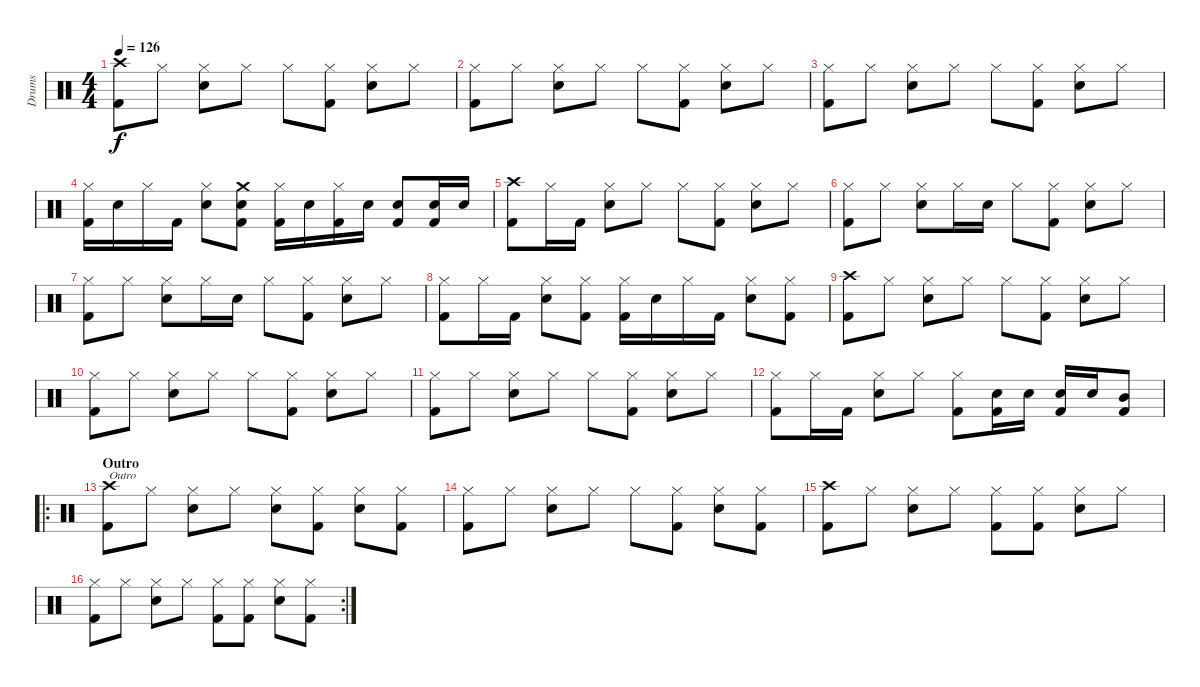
\track ("Drums" "Drums") {instrument percussion}
\staff {score}
\articulation defaults
\ts (4 4)
\tempo 126
\clef neutral
\ks c
("Crash high (hit)" "Kick (hit) 2").8{dy f} "Hi-Hat (closed)".8 ("Hi-Hat (closed)" "Electric Snare (hit)").8 "Hi-Hat (closed)".8 "Hi-Hat (closed)".8 ("Hi-Hat (closed)" "Kick (hit) 2").8 ("Hi-Hat (closed)" "Electric Snare (hit)").8 "Hi-Hat (closed)".8 |
("Hi-Hat (closed)" "Kick (hit) 2").8 "Hi-Hat (closed)".8 ("Hi-Hat (closed)" "Electric Snare (hit)").8 "Hi-Hat (closed)".8 "Hi-Hat (closed)".8 ("Hi-Hat (closed)" "Kick (hit) 2").8 ("Hi-Hat (closed)" "Electric Snare (hit)").8 "Hi-Hat (closed)".8 |
("Hi-Hat (closed)" "Kick (hit) 2").8 "Hi-Hat (closed)".8 ("Hi-Hat (closed)" "Electric Snare (hit)").8 "Hi-Hat (closed)".8 "Hi-Hat (closed)".8 ("Hi-Hat (closed)" "Kick (hit) 2").8 ("Hi-Hat (closed)" "Electric Snare (hit)").8 "Hi-Hat (closed)".8 |
("Hi-Hat (closed)" "Kick (hit) 2").16 "Electric Snare (hit)".16 "Hi-Hat (closed)".16 "Kick (hit) 2".16 ("Hi-Hat (closed)" "Electric Snare (hit)").8 ("Crash medium (hit)" "Electric Snare (hit)" "Kick (hit) 2").8 ("Hi-Hat (closed)" "Kick (hit) 2").16 "Electric Snare (hit)".16 ("Hi-Hat (closed)" "Kick (hit) 2").16 "Electric Snare (hit)".16 ("Electric Snare (hit)" "Kick (hit) 2").8 ("Electric Snare (hit)" "Kick (hit) 2").16 "Electric Snare (hit)".16 |
("Crash high (hit)" "Kick (hit) 2").8 "Hi-Hat (closed)".16 "Kick (hit) 2".16 ("Hi-Hat (closed)" "Electric Snare (hit)").8 "Hi-Hat (closed)".8 "Hi-Hat (closed)".8 ("Hi-Hat (closed)" "Kick (hit) 2").8 ("Hi-Hat (closed)" "Electric Snare (hit)").8 "Hi-Hat (closed)".8 |
("Hi-Hat (closed)" "Kick (hit) 2").8 "Hi-Hat (closed)".8 ("Hi-Hat (closed)" "Electric Snare (hit)").8 "Hi-Hat (closed)".16 "Electric Snare (hit)".16 "Hi-Hat (closed)".8 ("Hi-Hat (closed)" "Kick (hit) 2").8 ("Hi-Hat (closed)" "Electric Snare (hit)").8 "Hi-Hat (closed)".8 |
("Hi-Hat (closed)" "Kick (hit) 2").8 "Hi-Hat (closed)".8 ("Hi-Hat (closed)" "Electric Snare (hit)").8 "Hi-Hat (closed)".16 "Electric Snare (hit)".16 "Hi-Hat (closed)".8 ("Hi-Hat (closed)" "Kick (hit) 2").8 ("Hi-Hat (closed)" "Electric Snare (hit)").8 "Hi-Hat (closed)".8 |
("Hi-Hat (closed)" "Kick (hit) 2").8 "Hi-Hat (closed)".16 "Kick (hit) 2".16 ("Hi-Hat (closed)" "Electric Snare (hit)").8 ("Hi-Hat (closed)" "Kick (hit) 2").8 ("Hi-Hat (closed)" "Kick (hit) 2").16 "Electric Snare (hit)".16 "Hi-Hat (closed)".16 "Kick (hit) 2".16 ("Hi-Hat (closed)" "Electric Snare (hit)").8 ("Hi-Hat (closed)" "Kick (hit) 2").8 |
("Crash high (hit)" "Kick (hit) 2").8 "Hi-Hat (closed)".8 ("Hi-Hat (closed)" "Electric Snare (hit)").8 "Hi-Hat (closed)".8 "Hi-Hat (closed)".8 ("Hi-Hat (closed)" "Kick (hit) 2").8 ("Hi-Hat (closed)" "Electric Snare (hit)").8 "Hi-Hat (closed)".8 |
("Hi-Hat (closed)" "Kick (hit) 2").8 "Hi-Hat (closed)".8 ("Hi-Hat (closed)" "Electric Snare (hit)").8 "Hi-Hat (closed)".8 "Hi-Hat (closed)".8 ("Hi-Hat (closed)" "Kick (hit) 2").8 ("Hi-Hat (closed)" "Electric Snare (hit)").8 "Hi-Hat (closed)".8 |
("Hi-Hat (closed)" "Kick (hit) 2").8 "Hi-Hat (closed)".8 ("Hi-Hat (closed)" "Electric Snare (hit)").8 "Hi-Hat (closed)".8 "Hi-Hat (closed)".8 ("Hi-Hat (closed)" "Kick (hit) 2").8 ("Hi-Hat (closed)" "Electric Snare (hit)").8 "Hi-Hat (closed)".8 |
("Hi-Hat (closed)" "Kick (hit) 2").8 "Hi-Hat (closed)".16 "Kick (hit) 2".16 ("Hi-Hat (closed)" "Electric Snare (hit)").8 "Hi-Hat (closed)".8 ("Hi-Hat (closed)" "Kick (hit) 2").8 ("Electric Snare (hit)" "Kick (hit) 2").16 "Electric Snare (hit)".16 ("Electric Snare (hit)" "Kick (hit) 2").16 "Electric Snare (hit)".16 ("Mid Tom (hit)" "Kick (hit) 2").8 |
\ro
\section ("" "Outro")
("Crash high (hit)" "Kick (hit) 2").8{txt "Outro"} "Hi-Hat (closed)".8 ("Hi-Hat (closed)" "Electric Snare (hit)").8 "Hi-Hat (closed)".8 ("Hi-Hat (closed)" "Electric Snare (hit)").8 ("Hi-Hat (closed)" "Kick (hit) 2").8 ("Hi-Hat (closed)" "Electric Snare (hit)").8 ("Hi-Hat (closed)" "Kick (hit) 2").8 |
("Hi-Hat (closed)" "Kick (hit) 2").8 "Hi-Hat (closed)".8 ("Hi-Hat (closed)" "Electric Snare (hit)").8 "Hi-Hat (closed)".8 "Hi-Hat (closed)".8 ("Hi-Hat (closed)" "Kick (hit) 2").8 ("Hi-Hat (closed)" "Electric Snare (hit)").8 ("Hi-Hat (closed)" "Kick (hit) 2").8 |
("Crash high (hit)" "Kick (hit) 2").8 "Hi-Hat (closed)".8 ("Hi-Hat (closed)" "Electric Snare (hit)").8 "Hi-Hat (closed)".8 ("Hi-Hat (closed)" "Kick (hit) 2").8 ("Hi-Hat (closed)" "Kick (hit) 2").8 ("Hi-Hat (closed)" "Electric Snare (hit)").8 "Hi-Hat (closed)".8 |
\rc 2
("Hi-Hat (closed)" "Kick (hit) 2").8 "Hi-Hat (closed)".8 ("Hi-Hat (closed)" "Electric Snare (hit)").8 "Hi-Hat (closed)".8 ("Hi-Hat (closed)" "Kick (hit) 2").8 ("Hi-Hat (closed)" "Kick (hit) 2").8 ("Hi-Hat (closed)" "Electric Snare (hit)").8 ("Hi-Hat (closed)" "Kick (hit) 2").8
